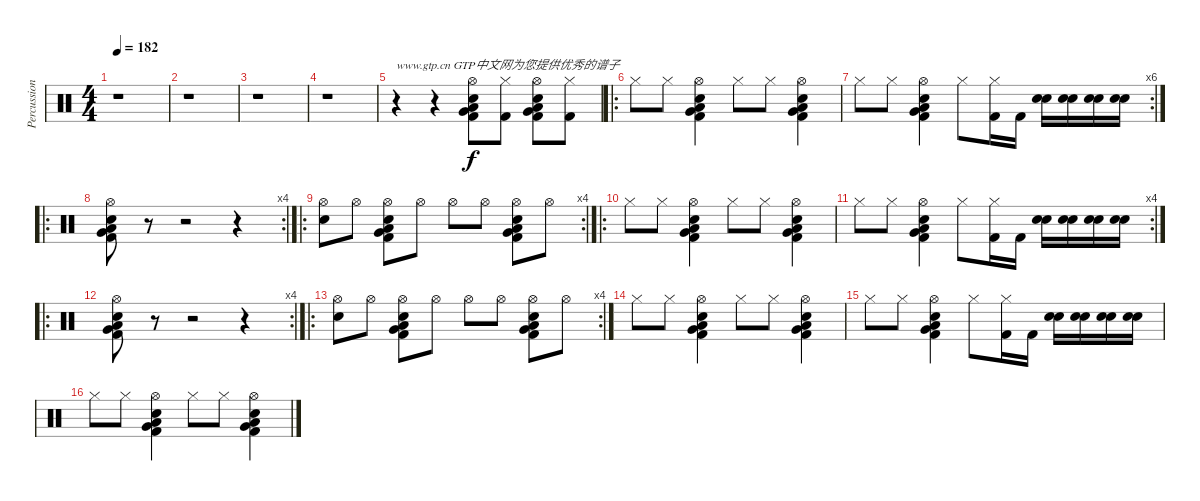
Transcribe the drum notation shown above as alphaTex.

\track ("Percussion" "Percussion") {instrument percussion}
\staff {score}
\articulation defaults
\ts (4 4)
\tempo 182
\clef neutral
\ks c
r.1{dy f} |
r.1 |
r.1 |
r.1 |
r.4{txt "www.gtp.cn GTP中文网为您提供优秀的谱子"} r.4 ("Hi-Hat (open)" "Snare (hit) 2" "Low Tom (hit)" "Very Low Tom (hit)" "Kick (hit) 2").8 ("Hi-Hat (closed)" "Kick (hit) 2").8 ("Hi-Hat (open)" "Snare (hit) 2" "Low Tom (hit)" "Very Low Tom (hit)" "Kick (hit) 2").8 ("Hi-Hat (closed)" "Kick (hit) 2").8 |
\ro "Hi-Hat (closed)".8 "Hi-Hat (closed)".8
("Low Tom (hit)" "Snare (hit) 2" "Hi-Hat (open)" "Kick (hit) 2" "Very Low Tom (hit)").4 "Hi-Hat (closed)".8 "Hi-Hat (closed)".8 ("Low Tom (hit)" "Snare (hit) 2" "Hi-Hat (open)" "Kick (hit) 2" "Very Low Tom (hit)").4 |
\rc 6 "Hi-Hat (closed)".8 "Hi-Hat (closed)".8
("Low Tom (hit)" "Snare (hit) 2" "Hi-Hat (open)" "Kick (hit) 2" "Very Low Tom (hit)").4 "Hi-Hat (closed)".8 ("Hi-Hat (closed)" "Kick (hit) 2").16 "Kick (hit) 2".16 ("Snare (hit) 2" "Snare (hit) 2").16 ("Snare (hit) 2" "Snare (hit) 2").16 ("Snare (hit) 2" "Snare (hit) 2").16 ("Snare (hit) 2" "Snare (hit) 2").16 |
\ro
\rc 4
("Snare (hit) 2" "Low Tom (hit)" "Hi-Hat (open)" "Kick (hit) 2" "Very Low Tom (hit)").8 r.8 r.2 r.4 |
\ro
\rc 4
("Snare (hit) 2" "Hi-Hat (open)").8 "Hi-Hat (open)".8 ("Snare (hit) 2" "Low Tom (hit)" "Hi-Hat (open)" "Kick (hit) 2" "Very Low Tom (hit)").8 "Hi-Hat (open)".8 "Hi-Hat (open)".8 "Hi-Hat (open)".8 ("Snare (hit) 2" "Low Tom (hit)" "Hi-Hat (open)" "Kick (hit) 2" "Very Low Tom (hit)").8 "Hi-Hat (open)".8 |
\ro "Hi-Hat (closed)".8 "Hi-Hat (closed)".8
("Low Tom (hit)" "Snare (hit) 2" "Hi-Hat (open)" "Kick (hit) 2" "Very Low Tom (hit)").4 "Hi-Hat (closed)".8 "Hi-Hat (closed)".8 ("Low Tom (hit)" "Snare (hit) 2" "Hi-Hat (open)" "Kick (hit) 2" "Very Low Tom (hit)").4 |
\rc 4 "Hi-Hat (closed)".8 "Hi-Hat (closed)".8
("Low Tom (hit)" "Snare (hit) 2" "Hi-Hat (open)" "Kick (hit) 2" "Very Low Tom (hit)").4 "Hi-Hat (closed)".8 ("Hi-Hat (closed)" "Kick (hit) 2").16 "Kick (hit) 2".16 ("Snare (hit) 2" "Snare (hit) 2").16 ("Snare (hit) 2" "Snare (hit) 2").16 ("Snare (hit) 2" "Snare (hit) 2").16 ("Snare (hit) 2" "Snare (hit) 2").16 |
\ro
\rc 4
("Snare (hit) 2" "Low Tom (hit)" "Hi-Hat (open)" "Kick (hit) 2" "Very Low Tom (hit)").8 r.8 r.2 r.4 |
\ro
\rc 4
("Snare (hit) 2" "Hi-Hat (open)").8 "Hi-Hat (open)".8 ("Snare (hit) 2" "Low Tom (hit)" "Hi-Hat (open)" "Kick (hit) 2" "Very Low Tom (hit)").8 "Hi-Hat (open)".8 "Hi-Hat (open)".8 "Hi-Hat (open)".8 ("Snare (hit) 2" "Low Tom (hit)" "Hi-Hat (open)" "Kick (hit) 2" "Very Low Tom (hit)").8 "Hi-Hat (open)".8 |
"Hi-Hat (closed)".8 "Hi-Hat (closed)".8 ("Low Tom (hit)" "Snare (hit) 2" "Hi-Hat (open)" "Kick (hit) 2" "Very Low Tom (hit)").4 "Hi-Hat (closed)".8 "Hi-Hat (closed)".8 ("Low Tom (hit)" "Snare (hit) 2" "Hi-Hat (open)" "Kick (hit) 2" "Very Low Tom (hit)").4 |
"Hi-Hat (closed)".8 "Hi-Hat (closed)".8 ("Low Tom (hit)" "Snare (hit) 2" "Hi-Hat (open)" "Kick (hit) 2" "Very Low Tom (hit)").4 "Hi-Hat (closed)".8 ("Hi-Hat (closed)" "Kick (hit) 2").16 "Kick (hit) 2".16 ("Snare (hit) 2" "Snare (hit) 2").16 ("Snare (hit) 2" "Snare (hit) 2").16 ("Snare (hit) 2" "Snare (hit) 2").16 ("Snare (hit) 2" "Snare (hit) 2").16 |
"Hi-Hat (closed)".8 "Hi-Hat (closed)".8 ("Low Tom (hit)" "Snare (hit) 2" "Hi-Hat (open)" "Kick (hit) 2" "Very Low Tom (hit)").4 "Hi-Hat (closed)".8 "Hi-Hat (closed)".8 ("Low Tom (hit)" "Snare (hit) 2" "Hi-Hat (open)" "Kick (hit) 2" "Very Low Tom (hit)").4
